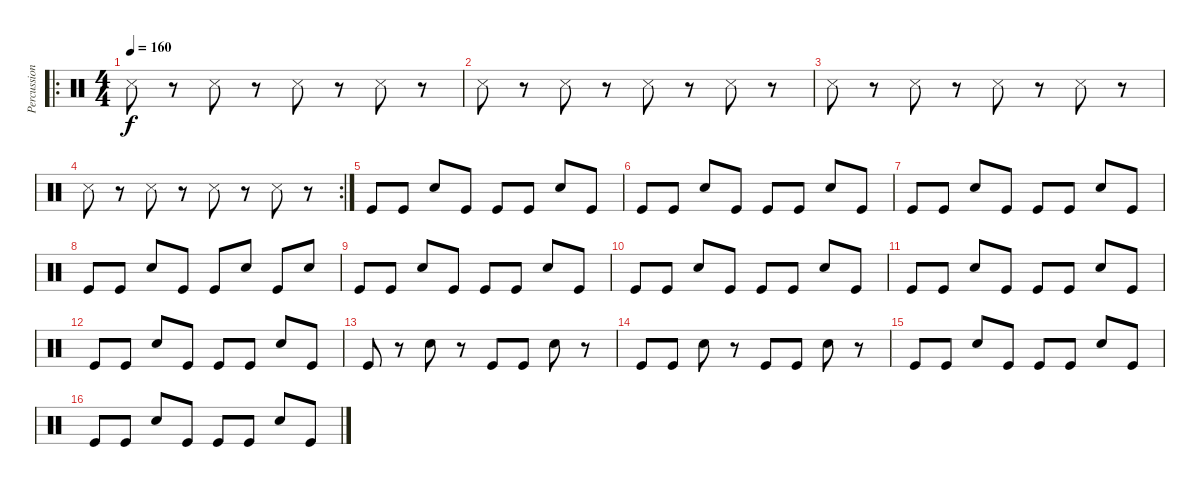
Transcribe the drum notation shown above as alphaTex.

\track ("Percussion" "Percussion") {instrument percussion}
\staff {score}
\articulation defaults
\ro
\ts (4 4)
\tempo 160
\clef neutral
\ks c "Snare (side stick) 3".8{dy f}
r.8 "Snare (side stick) 3".8 r.8 "Snare (side stick) 3".8 r.8 "Snare (side stick) 3".8 r.8 |
"Snare (side stick) 3".8 r.8 "Snare (side stick) 3".8 r.8 "Snare (side stick) 3".8 r.8 "Snare (side stick) 3".8 r.8 |
"Snare (side stick) 3".8 r.8 "Snare (side stick) 3".8 r.8 "Snare (side stick) 3".8 r.8 "Snare (side stick) 3".8 r.8 |
\rc 2 "Snare (side stick) 3".8
r.8 "Snare (side stick) 3".8 r.8 "Snare (side stick) 3".8 r.8 "Snare (side stick) 3".8 r.8 |
"Kick (hit)".8 "Kick (hit)".8 "Snare (hit) 2".8 "Kick (hit)".8 "Kick (hit)".8 "Kick (hit)".8 "Snare (hit) 2".8 "Kick (hit)".8 |
"Kick (hit)".8 "Kick (hit)".8 "Snare (hit) 2".8 "Kick (hit)".8 "Kick (hit)".8 "Kick (hit)".8 "Snare (hit) 2".8 "Kick (hit)".8 |
"Kick (hit)".8 "Kick (hit)".8 "Snare (hit) 2".8 "Kick (hit)".8 "Kick (hit)".8 "Kick (hit)".8 "Snare (hit) 2".8 "Kick (hit)".8 |
"Kick (hit)".8 "Kick (hit)".8 "Snare (hit) 2".8 "Kick (hit)".8 "Kick (hit)".8 "Snare (hit) 2".8 "Kick (hit)".8 "Snare (hit) 2".8 |
"Kick (hit)".8 "Kick (hit)".8 "Snare (hit) 2".8 "Kick (hit)".8 "Kick (hit)".8 "Kick (hit)".8 "Snare (hit) 2".8 "Kick (hit)".8 |
"Kick (hit)".8 "Kick (hit)".8 "Snare (hit) 2".8 "Kick (hit)".8 "Kick (hit)".8 "Kick (hit)".8 "Snare (hit) 2".8 "Kick (hit)".8 |
"Kick (hit)".8 "Kick (hit)".8 "Snare (hit) 2".8 "Kick (hit)".8 "Kick (hit)".8 "Kick (hit)".8 "Snare (hit) 2".8 "Kick (hit)".8 |
"Kick (hit)".8 "Kick (hit)".8 "Snare (hit) 2".8 "Kick (hit)".8 "Kick (hit)".8 "Kick (hit)".8 "Snare (hit) 2".8 "Kick (hit)".8 |
"Kick (hit)".8 r.8 "Snare (hit) 2".8 r.8 "Kick (hit)".8 "Kick (hit)".8 "Snare (hit) 2".8 r.8 |
"Kick (hit)".8 "Kick (hit)".8 "Snare (hit) 2".8 r.8 "Kick (hit)".8 "Kick (hit)".8 "Snare (hit) 2".8 r.8 |
"Kick (hit)".8 "Kick (hit)".8 "Snare (hit) 2".8 "Kick (hit)".8 "Kick (hit)".8 "Kick (hit)".8 "Snare (hit) 2".8 "Kick (hit)".8 |
"Kick (hit)".8 "Kick (hit)".8 "Snare (hit) 2".8 "Kick (hit)".8 "Kick (hit)".8 "Kick (hit)".8 "Snare (hit) 2".8 "Kick (hit)".8
